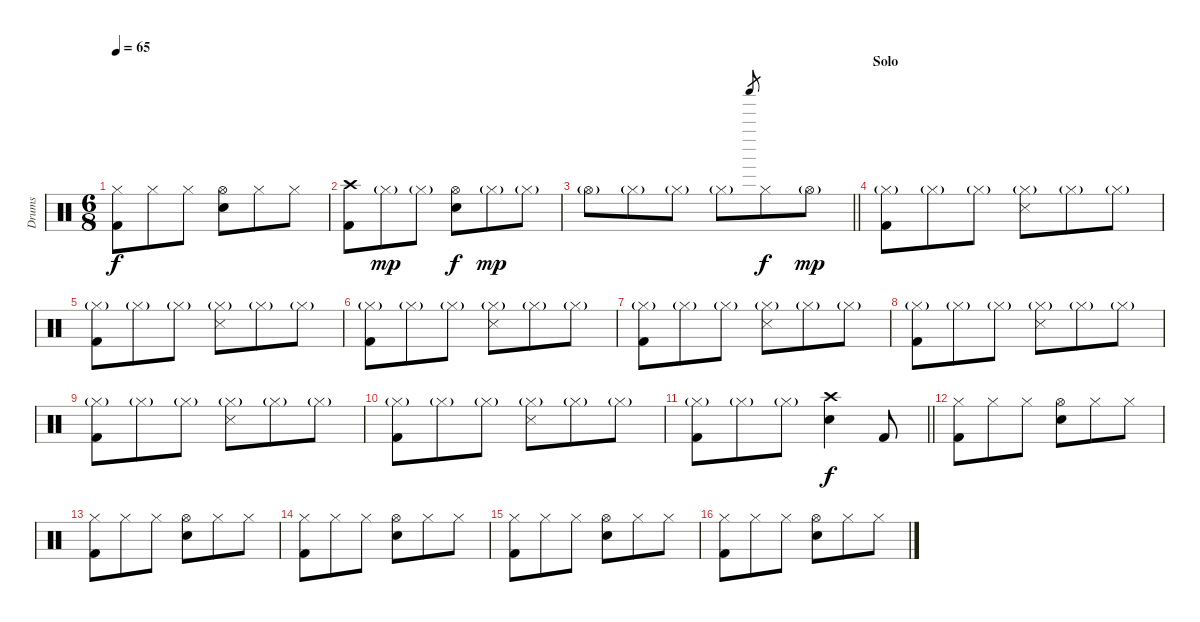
\track ("Drums" "Drums") {instrument percussion}
\staff {score}
\articulation defaults
\ts (6 8)
\tempo 65
\clef neutral
\ks c
("Hi-Hat (closed)" "Kick (hit) 2").8{dy f} "Hi-Hat (closed)".8 "Hi-Hat (closed)".8 ("Hi-Hat (open)" "Snare (hit) 2").8 "Hi-Hat (closed)".8 "Hi-Hat (closed)".8 |
("Crash high (hit)" "Kick (hit) 2").8 "Hi-Hat (closed)"{g}.8{dy mp} "Hi-Hat (closed)"{g}.8 ("Hi-Hat (open)" "Snare (hit) 2").8{dy f} "Hi-Hat (closed)"{g}.8{dy mp} "Hi-Hat (closed)"{g}.8 |
\barLineRight lightlight "Hi-Hat (open)"{g}.8 "Hi-Hat (closed)"{g}.8 "Hi-Hat (closed)"{g}.8 "Hi-Hat (closed)"{g}.8 "Shaker (hit)".8{gr} "Hi-Hat (closed)".8{dy f} "Hi-Hat (open)"{g}.8{dy mp}
|
\section ("" "Solo")
("Hi-Hat (closed)"{g} "Kick (hit) 2").8 "Hi-Hat (closed)"{g}.8 "Hi-Hat (closed)"{g}.8 ("Hi-Hat (closed)"{g} "Snare (side stick) 3").8 "Hi-Hat (closed)"{g}.8 "Hi-Hat (closed)"{g}.8 |
("Hi-Hat (closed)"{g} "Kick (hit) 2").8 "Hi-Hat (closed)"{g}.8 "Hi-Hat (closed)"{g}.8 ("Hi-Hat (closed)"{g} "Snare (side stick) 3").8 "Hi-Hat (closed)"{g}.8 "Hi-Hat (closed)"{g}.8 |
("Hi-Hat (closed)"{g} "Kick (hit) 2").8 "Hi-Hat (closed)"{g}.8 "Hi-Hat (closed)"{g}.8 ("Hi-Hat (closed)"{g} "Snare (side stick) 3").8 "Hi-Hat (closed)"{g}.8 "Hi-Hat (closed)"{g}.8 |
("Hi-Hat (closed)"{g} "Kick (hit) 2").8 "Hi-Hat (closed)"{g}.8 "Hi-Hat (closed)"{g}.8 ("Hi-Hat (closed)"{g} "Snare (side stick) 3").8 "Hi-Hat (closed)"{g}.8 "Hi-Hat (closed)"{g}.8 |
("Hi-Hat (closed)"{g} "Kick (hit) 2").8 "Hi-Hat (closed)"{g}.8 "Hi-Hat (closed)"{g}.8 ("Hi-Hat (closed)"{g} "Snare (side stick) 3").8 "Hi-Hat (closed)"{g}.8 "Hi-Hat (closed)"{g}.8 |
("Hi-Hat (closed)"{g} "Kick (hit) 2").8 "Hi-Hat (closed)"{g}.8 "Hi-Hat (closed)"{g}.8 ("Hi-Hat (closed)"{g} "Snare (side stick) 3").8 "Hi-Hat (closed)"{g}.8 "Hi-Hat (closed)"{g}.8 |
("Hi-Hat (closed)"{g} "Kick (hit) 2").8 "Hi-Hat (closed)"{g}.8 "Hi-Hat (closed)"{g}.8 ("Hi-Hat (closed)"{g} "Snare (side stick) 3").8 "Hi-Hat (closed)"{g}.8 "Hi-Hat (closed)"{g}.8 |
\barLineRight lightlight
("Hi-Hat (closed)"{g} "Kick (hit) 2").8 "Hi-Hat (closed)"{g}.8 "Hi-Hat (closed)"{g}.8 ("Crash high (hit)" "Snare (hit) 2").4{dy f} "Kick (hit) 2".8 |
\section ("" "")
("Hi-Hat (closed)" "Kick (hit) 2").8 "Hi-Hat (closed)".8 "Hi-Hat (closed)".8 ("Hi-Hat (open)" "Snare (hit) 2").8 "Hi-Hat (closed)".8 "Hi-Hat (closed)".8 |
("Hi-Hat (closed)" "Kick (hit) 2").8 "Hi-Hat (closed)".8 "Hi-Hat (closed)".8 ("Hi-Hat (open)" "Snare (hit) 2").8 "Hi-Hat (closed)".8 "Hi-Hat (closed)".8 |
("Hi-Hat (closed)" "Kick (hit) 2").8 "Hi-Hat (closed)".8 "Hi-Hat (closed)".8 ("Hi-Hat (open)" "Snare (hit) 2").8 "Hi-Hat (closed)".8 "Hi-Hat (closed)".8 |
("Hi-Hat (closed)" "Kick (hit) 2").8 "Hi-Hat (closed)".8 "Hi-Hat (closed)".8 ("Hi-Hat (open)" "Snare (hit) 2").8 "Hi-Hat (closed)".8 "Hi-Hat (closed)".8 |
("Hi-Hat (closed)" "Kick (hit) 2").8 "Hi-Hat (closed)".8 "Hi-Hat (closed)".8 ("Hi-Hat (open)" "Snare (hit) 2").8 "Hi-Hat (closed)".8 "Hi-Hat (closed)".8
